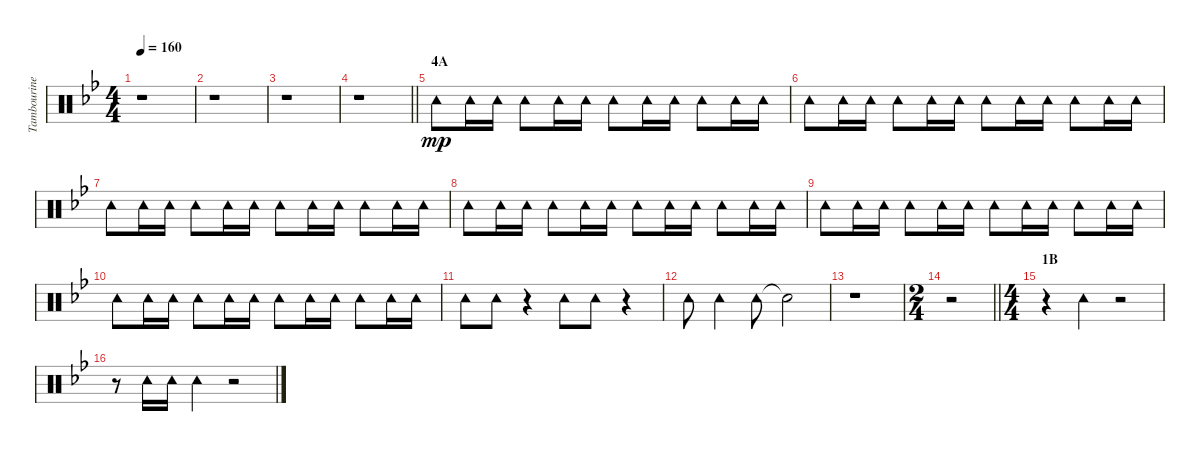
\track ("Tambourine" "Tambourine") {instrument percussion}
\staff {score}
\articulation defaults
\ts (4 4)
\tempo 160
\clef neutral
\ks bb
r.1{dy mp} |
r.1 |
r.1 |
\barLineRight lightlight
r.1 |
\section ("" "4A")
"Tambourine (hit)".8 "Tambourine (hit)".16 "Tambourine (hit)".16 "Tambourine (hit)".8 "Tambourine (hit)".16 "Tambourine (hit)".16 "Tambourine (hit)".8 "Tambourine (hit)".16 "Tambourine (hit)".16 "Tambourine (hit)".8 "Tambourine (hit)".16 "Tambourine (hit)".16 |
"Tambourine (hit)".8 "Tambourine (hit)".16 "Tambourine (hit)".16 "Tambourine (hit)".8 "Tambourine (hit)".16 "Tambourine (hit)".16 "Tambourine (hit)".8 "Tambourine (hit)".16 "Tambourine (hit)".16 "Tambourine (hit)".8 "Tambourine (hit)".16 "Tambourine (hit)".16 |
"Tambourine (hit)".8 "Tambourine (hit)".16 "Tambourine (hit)".16 "Tambourine (hit)".8 "Tambourine (hit)".16 "Tambourine (hit)".16 "Tambourine (hit)".8 "Tambourine (hit)".16 "Tambourine (hit)".16 "Tambourine (hit)".8 "Tambourine (hit)".16 "Tambourine (hit)".16 |
"Tambourine (hit)".8 "Tambourine (hit)".16 "Tambourine (hit)".16 "Tambourine (hit)".8 "Tambourine (hit)".16 "Tambourine (hit)".16 "Tambourine (hit)".8 "Tambourine (hit)".16 "Tambourine (hit)".16 "Tambourine (hit)".8 "Tambourine (hit)".16 "Tambourine (hit)".16 |
"Tambourine (hit)".8 "Tambourine (hit)".16 "Tambourine (hit)".16 "Tambourine (hit)".8 "Tambourine (hit)".16 "Tambourine (hit)".16 "Tambourine (hit)".8 "Tambourine (hit)".16 "Tambourine (hit)".16 "Tambourine (hit)".8 "Tambourine (hit)".16 "Tambourine (hit)".16 |
"Tambourine (hit)".8 "Tambourine (hit)".16 "Tambourine (hit)".16 "Tambourine (hit)".8 "Tambourine (hit)".16 "Tambourine (hit)".16 "Tambourine (hit)".8 "Tambourine (hit)".16 "Tambourine (hit)".16 "Tambourine (hit)".8 "Tambourine (hit)".16 "Tambourine (hit)".16 |
"Tambourine (hit)".8 "Tambourine (hit)".8 r.4 "Tambourine (hit)".8 "Tambourine (hit)".8 r.4 |
"Tambourine (hit)".8 "Tambourine (hit)".4 "Tambourine (hit)".8 "Snare (hit)"{t}.2 |
r.1 |
\ts (2 4)
\barLineRight lightlight
r.2 |
\ts (4 4)
\section ("" "1B")
r.4 "Tambourine (hit)".4 r.2 |
r.8 "Tambourine (hit)".16 "Tambourine (hit)".16 "Tambourine (hit)".4 r.2
